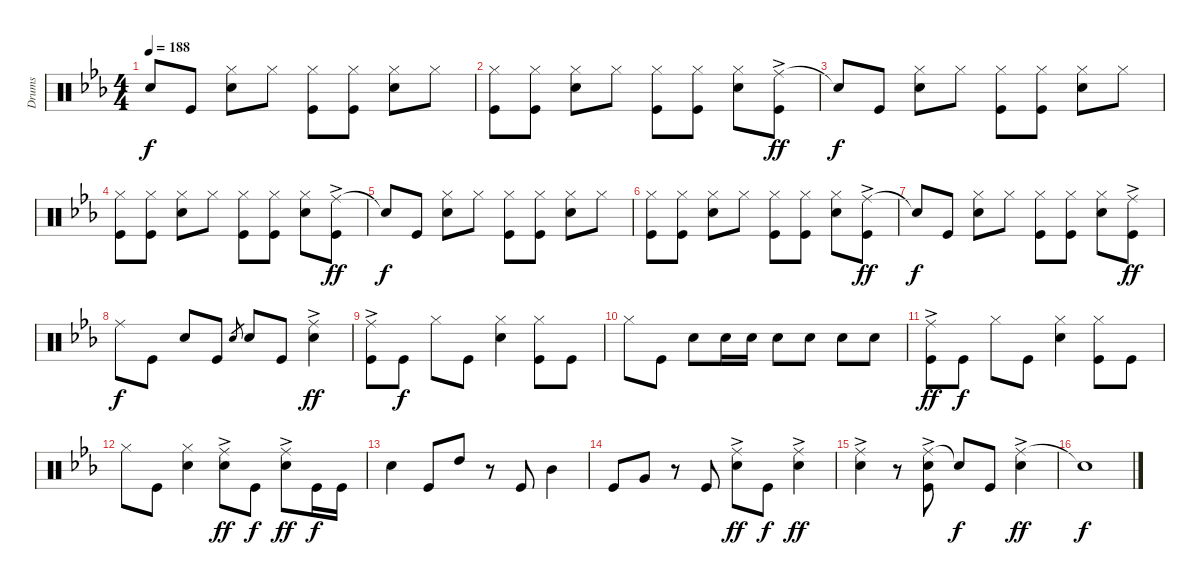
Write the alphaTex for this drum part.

\track ("Drums" "Drums") {instrument percussion}
\staff {score}
\articulation defaults
\ts (4 4)
\tempo 188
\clef neutral
\ks eb "Snare (hit)"{t}.8{dy f} "Kick (hit)".8
("Hi-Hat (closed)" "Snare (hit) 2").8 "Hi-Hat (closed)".8 ("Hi-Hat (closed)" "Kick (hit)").8 ("Hi-Hat (closed)" "Kick (hit)").8 ("Hi-Hat (closed)" "Snare (hit) 2").8 "Hi-Hat (closed)".8 |
("Hi-Hat (closed)" "Kick (hit)").8 ("Hi-Hat (closed)" "Kick (hit)").8 ("Hi-Hat (closed)" "Snare (hit) 2").8 "Hi-Hat (closed)".8 ("Hi-Hat (closed)" "Kick (hit)").8 ("Hi-Hat (closed)" "Kick (hit)").8 ("Hi-Hat (closed)" "Snare (hit) 2").8 ("Ride (middle)"{ac} "Kick (hit)").8{dy ff} |
"Snare (hit)"{t}.8{dy f} "Kick (hit)".8 ("Hi-Hat (closed)" "Snare (hit) 2").8 "Hi-Hat (closed)".8 ("Hi-Hat (closed)" "Kick (hit)").8 ("Hi-Hat (closed)" "Kick (hit)").8 ("Hi-Hat (closed)" "Snare (hit) 2").8 "Hi-Hat (closed)".8 |
("Hi-Hat (closed)" "Kick (hit)").8 ("Hi-Hat (closed)" "Kick (hit)").8 ("Hi-Hat (closed)" "Snare (hit) 2").8 "Hi-Hat (closed)".8 ("Hi-Hat (closed)" "Kick (hit)").8 ("Hi-Hat (closed)" "Kick (hit)").8 ("Hi-Hat (closed)" "Snare (hit) 2").8 ("Ride (middle)"{ac} "Kick (hit)").8{dy ff} |
"Snare (hit)"{t}.8{dy f} "Kick (hit)".8 ("Hi-Hat (closed)" "Snare (hit) 2").8 "Hi-Hat (closed)".8 ("Hi-Hat (closed)" "Kick (hit)").8 ("Hi-Hat (closed)" "Kick (hit)").8 ("Hi-Hat (closed)" "Snare (hit) 2").8 "Hi-Hat (closed)".8 |
("Hi-Hat (closed)" "Kick (hit)").8 ("Hi-Hat (closed)" "Kick (hit)").8 ("Hi-Hat (closed)" "Snare (hit) 2").8 "Hi-Hat (closed)".8 ("Hi-Hat (closed)" "Kick (hit)").8 ("Hi-Hat (closed)" "Kick (hit)").8 ("Hi-Hat (closed)" "Snare (hit) 2").8 ("Ride (middle)"{ac} "Kick (hit)").8{dy ff} |
"Snare (hit)"{t}.8{dy f} "Kick (hit)".8 ("Hi-Hat (closed)" "Snare (hit) 2").8 "Hi-Hat (closed)".8 ("Hi-Hat (closed)" "Kick (hit)").8 ("Hi-Hat (closed)" "Kick (hit)").8 ("Hi-Hat (closed)" "Snare (hit) 2").8 ("Ride (middle)"{ac} "Kick (hit)").8{dy ff} |
"Ride (middle)".8{dy f} "Kick (hit)".8 "Snare (hit) 2".8 "Kick (hit)".8 "Snare (hit) 2".8{gr} "Snare (hit) 2".8 "Kick (hit)".8 ("Ride (middle)"{ac} "Snare (hit) 2").4{dy ff} |
("Ride (middle)"{ac} "Kick (hit)").8 "Kick (hit)".8{dy f} "Hi-Hat (closed)".8 "Kick (hit)".8 ("Hi-Hat (closed)" "Snare (hit) 2").4 ("Hi-Hat (closed)" "Kick (hit)").8 "Kick (hit)".8 |
"Hi-Hat (closed)".8 "Kick (hit)".8 "Snare (hit) 2".8 "Snare (hit) 2".16 "Snare (hit) 2".16 "Snare (hit) 2".8 "Snare (hit) 2".8 "Snare (hit) 2".8 "Snare (hit) 2".8 |
("Ride (middle)"{ac} "Kick (hit)").8{dy ff} "Kick (hit)".8{dy f} "Hi-Hat (closed)".8 "Kick (hit)".8 ("Hi-Hat (closed)" "Snare (hit) 2").4 ("Hi-Hat (closed)" "Kick (hit)").8 "Kick (hit)".8 |
"Hi-Hat (closed)".8 "Kick (hit)".8 ("Hi-Hat (closed)" "Snare (hit) 2").4 ("Ride (middle)"{ac} "Snare (hit) 2").8{dy ff} "Kick (hit)".8{dy f} ("Ride (middle)"{ac} "Snare (hit) 2").8{dy ff} "Kick (hit)".16{dy f} "Kick (hit)".16 |
"Snare (hit) 2".4 "Kick (hit)".8 "High Tom (hit)".8 r.8 "Kick (hit)".8 "Mid Tom (hit)".4 |
"Kick (hit)".8 "Very Low Tom (hit)".8 r.8 "Kick (hit)".8 ("Ride (middle)"{ac} "Snare (hit) 2").8{dy ff} "Kick (hit)".8{dy f} ("Ride (middle)"{ac} "Snare (hit) 2").4{dy ff} |
("Ride (middle)"{ac} "Snare (hit) 2").4 r.8 ("Ride (middle)"{ac} "Snare (hit) 2" "Kick (hit)").8 "Snare (hit)"{t}.8{dy f} "Kick (hit)".8 ("Ride (middle)"{ac} "Snare (hit) 2").4{dy ff} |
"Snare (hit)"{t}.1{dy f}
